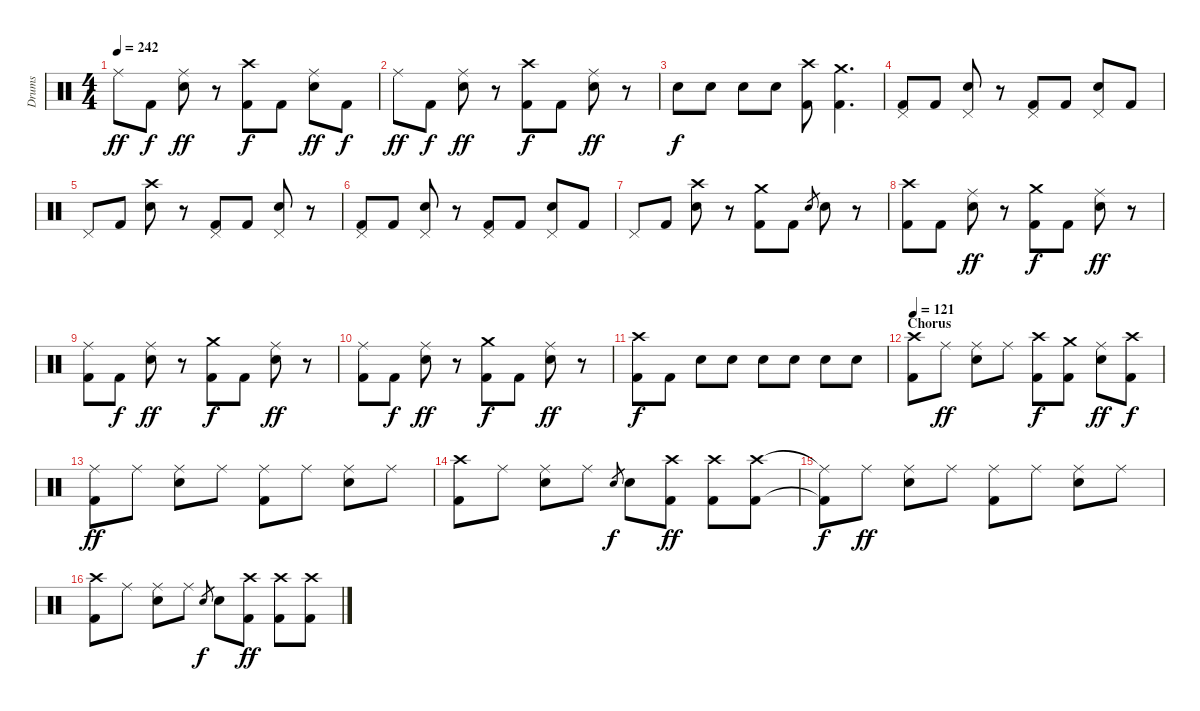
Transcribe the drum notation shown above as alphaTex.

\track ("Drums" "Drums") {instrument percussion}
\staff {score}
\articulation defaults
\ts (4 4)
\tempo 242
\clef neutral
\ks c "Ride (middle)".8{dy ff} "Kick (hit) 2".8{dy f}
("Ride (middle)" "Electric Snare (hit)").8{dy ff} r.8 ("Crash high (hit)" "Kick (hit) 2").8{dy f} "Kick (hit) 2".8 ("Ride (middle)" "Electric Snare (hit)").8{dy ff} "Kick (hit) 2".8{dy f} |
"Ride (middle)".8{dy ff} "Kick (hit) 2".8{dy f} ("Ride (middle)" "Electric Snare (hit)").8{dy ff} r.8 ("Crash high (hit)" "Kick (hit) 2").8{dy f} "Kick (hit) 2".8 ("Ride (middle)" "Electric Snare (hit)").8{dy ff} r.8 |
"Electric Snare (hit)".8{dy f} "Electric Snare (hit)".8 "Electric Snare (hit)".8 "Electric Snare (hit)".8 ("Crash high (hit)" "Kick (hit) 2").8 ("Crash medium (hit)" "Kick (hit) 2").4{d} |
("Pedal Hi-Hat (hit)" "Kick (hit) 2").8 "Kick (hit) 2".8 ("Pedal Hi-Hat (hit)" "Electric Snare (hit)").8 r.8 ("Pedal Hi-Hat (hit)" "Kick (hit) 2").8 "Kick (hit) 2".8 ("Pedal Hi-Hat (hit)" "Electric Snare (hit)").8 "Kick (hit) 2".8 |
"Pedal Hi-Hat (hit)".8 "Kick (hit) 2".8 ("Electric Snare (hit)" "Crash high (hit)").8 r.8 ("Pedal Hi-Hat (hit)" "Kick (hit) 2").8 "Kick (hit) 2".8 ("Pedal Hi-Hat (hit)" "Electric Snare (hit)").8 r.8 |
("Pedal Hi-Hat (hit)" "Kick (hit) 2").8 "Kick (hit) 2".8 ("Pedal Hi-Hat (hit)" "Electric Snare (hit)").8 r.8 ("Pedal Hi-Hat (hit)" "Kick (hit) 2").8 "Kick (hit) 2".8 ("Pedal Hi-Hat (hit)" "Electric Snare (hit)").8 "Kick (hit) 2".8 |
"Pedal Hi-Hat (hit)".8 "Kick (hit) 2".8 ("Electric Snare (hit)" "Crash high (hit)").8 r.8 ("Crash medium (hit)" "Kick (hit) 2").8 "Kick (hit) 2".8 "Electric Snare (hit)".8{gr} "Electric Snare (hit)".8 r.8 |
("Crash high (hit)" "Kick (hit) 2").8 "Kick (hit) 2".8 ("Ride (middle)" "Electric Snare (hit)").8{dy ff} r.8 ("Crash medium (hit)" "Kick (hit) 2").8{dy f} "Kick (hit) 2".8 ("Ride (middle)" "Electric Snare (hit)").8{dy ff} r.8 |
("Ride (middle)" "Kick (hit) 2").8 "Kick (hit) 2".8{dy f} ("Ride (middle)" "Electric Snare (hit)").8{dy ff} r.8 ("Crash medium (hit)" "Kick (hit) 2").8{dy f} "Kick (hit) 2".8 ("Ride (middle)" "Electric Snare (hit)").8{dy ff} r.8 |
("Ride (middle)" "Kick (hit) 2").8 "Kick (hit) 2".8{dy f} ("Ride (middle)" "Electric Snare (hit)").8{dy ff} r.8 ("Crash medium (hit)" "Kick (hit) 2").8{dy f} "Kick (hit) 2".8 ("Ride (middle)" "Electric Snare (hit)").8{dy ff} r.8 |
("Crash high (hit)" "Kick (hit) 2").8{dy f} "Kick (hit) 2".8 "Electric Snare (hit)".8 "Electric Snare (hit)".8 "Electric Snare (hit)".8 "Electric Snare (hit)".8 "Electric Snare (hit)".8 "Electric Snare (hit)".8 |
\section ("" "Chorus")
\tempo 121
("Crash high (hit)" "Kick (hit) 2").8 "Ride (middle)".8{dy ff} ("Ride (middle)" "Electric Snare (hit)").8 "Ride (middle)".8 ("Crash high (hit)" "Kick (hit) 2").8{dy f} ("Crash medium (hit)" "Kick (hit) 2").8 ("Ride (middle)" "Electric Snare (hit)").8{dy ff} ("Crash high (hit)" "Kick (hit) 2").8{dy f} |
("Ride (middle)" "Kick (hit) 2").8{dy ff} "Ride (middle)".8 ("Ride (middle)" "Electric Snare (hit)").8 "Ride (middle)".8 ("Ride (middle)" "Kick (hit) 2").8 "Ride (middle)".8 ("Ride (middle)" "Electric Snare (hit)").8 "Ride (middle)".8 |
("Crash high (hit)" "Kick (hit) 2").8 "Ride (middle)".8 ("Ride (middle)" "Electric Snare (hit)").8 "Ride (middle)".8 "Electric Snare (hit)".8{gr dy f} "Electric Snare (hit)".8 ("Crash high (hit)" "Kick (hit) 2").8{dy ff} ("Crash high (hit)" "Kick (hit) 2").8 ("Crash high (hit)" "Kick (hit) 2").8 |
("Ride (middle)"{t} "Kick (hit) 2"{t}).8{dy f} "Ride (middle)".8{dy ff} ("Ride (middle)" "Electric Snare (hit)").8 "Ride (middle)".8 ("Ride (middle)" "Kick (hit) 2").8 "Ride (middle)".8 ("Ride (middle)" "Electric Snare (hit)").8 "Ride (middle)".8 |
("Crash high (hit)" "Kick (hit) 2").8 "Ride (middle)".8 ("Ride (middle)" "Electric Snare (hit)").8 "Ride (middle)".8 "Electric Snare (hit)".8{gr dy f} "Electric Snare (hit)".8 ("Crash high (hit)" "Kick (hit) 2").8{dy ff} ("Crash high (hit)" "Kick (hit) 2").8 ("Crash high (hit)" "Kick (hit) 2").8
